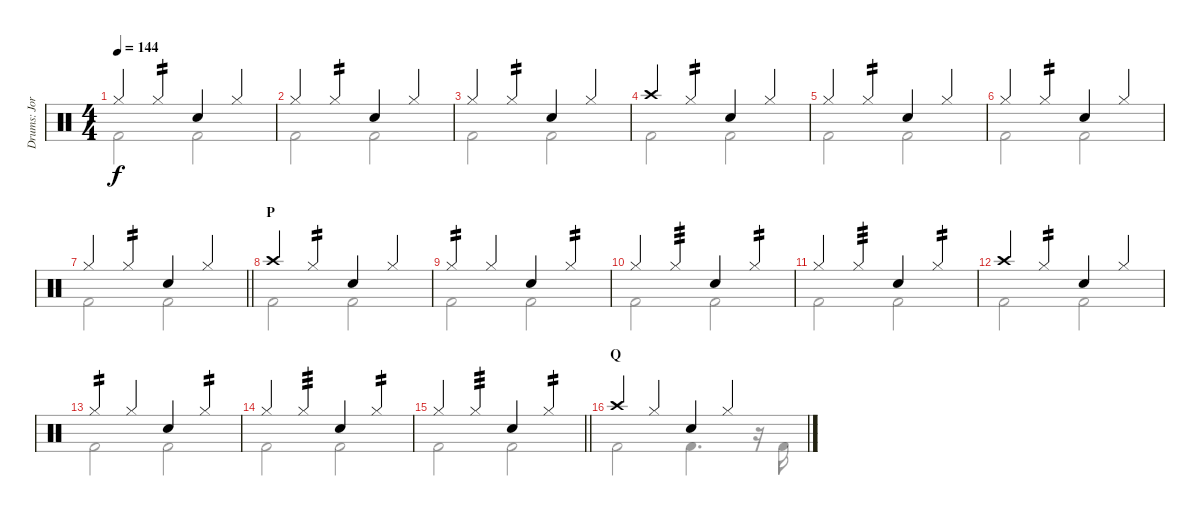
\track ("Drums: Jorg" "Drums: Jor") {instrument percussion}
\staff {score}
\articulation defaults
\voice
\ts (4 4)
\tempo 144
\clef neutral
\ks c "Hi-Hat (closed)".4{dy f} "Hi-Hat (closed)".4{tp 2} "Snare (hit) 2".4 "Hi-Hat (closed)".4
|
"Hi-Hat (closed)".4 "Hi-Hat (closed)".4{tp 2} "Snare (hit) 2".4 "Hi-Hat (closed)".4 |
"Hi-Hat (closed)".4 "Hi-Hat (closed)".4{tp 2} "Snare (hit) 2".4 "Hi-Hat (closed)".4 |
"Crash high (hit)".4 "Hi-Hat (closed)".4{tp 2} "Snare (hit) 2".4 "Hi-Hat (closed)".4 |
"Hi-Hat (closed)".4 "Hi-Hat (closed)".4{tp 2} "Snare (hit) 2".4 "Hi-Hat (closed)".4 |
"Hi-Hat (closed)".4 "Hi-Hat (closed)".4{tp 2} "Snare (hit) 2".4 "Hi-Hat (closed)".4 |
\barLineRight lightlight "Hi-Hat (closed)".4 "Hi-Hat (closed)".4{tp 2} "Snare (hit) 2".4 "Hi-Hat (closed)".4
|
\section ("" "P")
"Crash high (hit)".4 "Hi-Hat (closed)".4{tp 2} "Snare (hit) 2".4 "Hi-Hat (closed)".4 |
"Hi-Hat (closed)".4{tp 2} "Hi-Hat (closed)".4 "Snare (hit) 2".4 "Hi-Hat (closed)".4{tp 2} |
"Hi-Hat (closed)".4 "Hi-Hat (closed)".4{tp 3} "Snare (hit) 2".4 "Hi-Hat (closed)".4{tp 2} |
"Hi-Hat (closed)".4 "Hi-Hat (closed)".4{tp 3} "Snare (hit) 2".4 "Hi-Hat (closed)".4{tp 2} |
"Crash high (hit)".4 "Hi-Hat (closed)".4{tp 2} "Snare (hit) 2".4 "Hi-Hat (closed)".4 |
"Hi-Hat (closed)".4{tp 2} "Hi-Hat (closed)".4 "Snare (hit) 2".4 "Hi-Hat (closed)".4{tp 2} |
"Hi-Hat (closed)".4 "Hi-Hat (closed)".4{tp 3} "Snare (hit) 2".4 "Hi-Hat (closed)".4{tp 2} |
\barLineRight lightlight "Hi-Hat (closed)".4 "Hi-Hat (closed)".4{tp 3} "Snare (hit) 2".4 "Hi-Hat (closed)".4{tp 2}
|
\section ("" "Q")
"Crash high (hit)".4 "Hi-Hat (closed)".4 "Snare (hit) 2".4 "Hi-Hat (closed)".4
\voice
\clef neutral
\ottava regular
\simile none
\ks c "Kick (hit) 2".2{dy f} "Kick (hit) 2".2
|
"Kick (hit) 2".2 "Kick (hit) 2".2 |
"Kick (hit) 2".2 "Kick (hit) 2".2 |
"Kick (hit) 2".2 "Kick (hit) 2".2 |
"Kick (hit) 2".2 "Kick (hit) 2".2 |
"Kick (hit) 2".2 "Kick (hit) 2".2 |
\barLineRight lightlight "Kick (hit) 2".2 "Kick (hit) 2".2
|
"Kick (hit) 2".2 "Kick (hit) 2".2 |
"Kick (hit) 2".2 "Kick (hit) 2".2 |
"Kick (hit) 2".2 "Kick (hit) 2".2 |
"Kick (hit) 2".2 "Kick (hit) 2".2 |
"Kick (hit) 2".2 "Kick (hit) 2".2 |
"Kick (hit) 2".2 "Kick (hit) 2".2 |
"Kick (hit) 2".2 "Kick (hit) 2".2 |
\barLineRight lightlight "Kick (hit) 2".2 "Kick (hit) 2".2
|
"Kick (hit) 2".2 "Kick (hit) 2".4{d} r.16 "Kick (hit) 2".16
